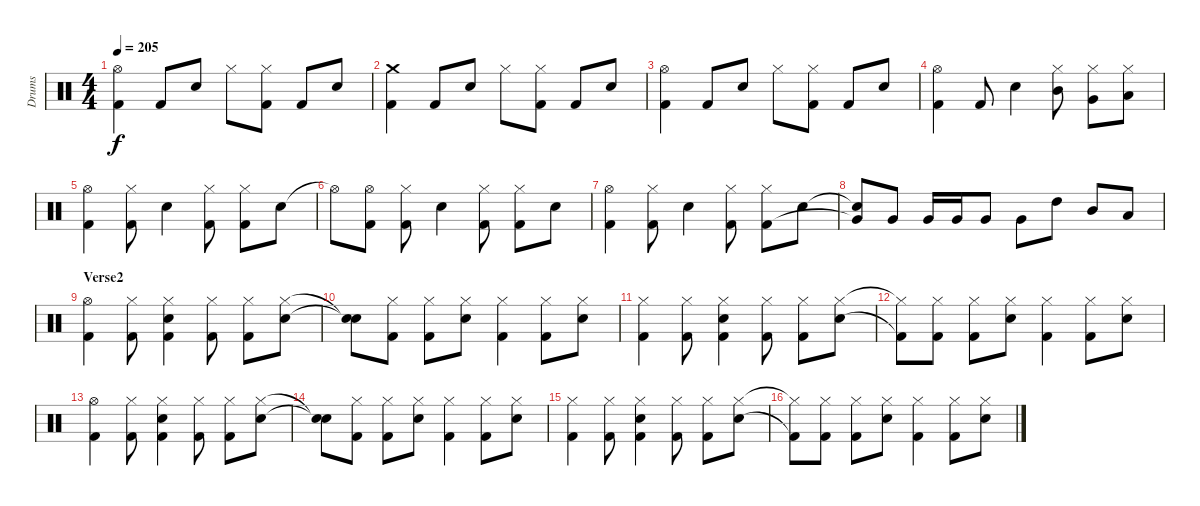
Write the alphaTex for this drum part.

\track ("Drums" "Drums") {instrument percussion}
\staff {score}
\articulation defaults
\ts (4 4)
\tempo 205
\clef neutral
\ks c
("Hi-Hat (open)" "Kick (hit) 2").4{dy f} "Kick (hit) 2".8 "Electric Snare (hit)".8 "Hi-Hat (closed)".8 ("Hi-Hat (closed)" "Kick (hit) 2").8 "Kick (hit) 2".8 "Electric Snare (hit)".8 |
("Crash medium (hit)" "Kick (hit) 2").4 "Kick (hit) 2".8 "Electric Snare (hit)".8 "Hi-Hat (closed)".8 ("Hi-Hat (closed)" "Kick (hit) 2").8 "Kick (hit) 2".8 "Electric Snare (hit)".8 |
("Hi-Hat (open)" "Kick (hit) 2").4 "Kick (hit) 2".8 "Electric Snare (hit)".8 "Hi-Hat (closed)".8 ("Hi-Hat (closed)" "Kick (hit) 2").8 "Kick (hit) 2".8 "Electric Snare (hit)".8 |
("Hi-Hat (open)" "Kick (hit) 2").4 "Kick (hit) 2".8 "Electric Snare (hit)".4 ("Hi-Hat (closed)" "Mid Tom (hit)").8 ("Hi-Hat (closed)" "Very Low Tom (hit)").8 ("Hi-Hat (closed)" "Low Tom (hit)").8 |
("Hi-Hat (open)" "Kick (hit) 2").4 ("Hi-Hat (closed)" "Kick (hit) 2").8 "Electric Snare (hit)".4 ("Hi-Hat (closed)" "Kick (hit) 2").8 ("Hi-Hat (closed)" "Kick (hit) 2").8 "Electric Snare (hit)".8 |
"Hi-Hat (open)"{t}.8 ("Hi-Hat (open)" "Kick (hit) 2").8 ("Hi-Hat (closed)" "Kick (hit) 2").8 "Electric Snare (hit)".4 ("Hi-Hat (closed)" "Kick (hit) 2").8 ("Hi-Hat (closed)" "Kick (hit) 2").8 "Electric Snare (hit)".8 |
("Hi-Hat (open)" "Kick (hit) 2").4 ("Hi-Hat (closed)" "Kick (hit) 2").8 "Electric Snare (hit)".4 ("Hi-Hat (closed)" "Kick (hit) 2").8 ("Hi-Hat (closed)" "Kick (hit) 2").8 "Electric Snare (hit)".8 |
("Snare (hit)"{t} "Very Low Tom (hit)"{t}).8 "Very Low Tom (hit)".8 "Very Low Tom (hit)".16 "Very Low Tom (hit)".16 "Very Low Tom (hit)".8 "Very Low Tom (hit)".8 "High Tom (hit)".8 "Mid Tom (hit)".8 "Low Tom (hit)".8 |
\section ("" "Verse2")
("Hi-Hat (open)" "Kick (hit) 2").4 ("Hi-Hat (closed)" "Kick (hit) 2").8 ("Electric Snare (hit)" "Hi-Hat (closed)" "Kick (hit) 2").4 ("Hi-Hat (closed)" "Kick (hit) 2").8 ("Hi-Hat (closed)" "Kick (hit) 2").8 ("Hi-Hat (closed)" "Electric Snare (hit)").8 |
("Snare (hit)"{t} "Snare (hit)"{t}).8 ("Hi-Hat (closed)" "Kick (hit) 2").8 ("Hi-Hat (closed)" "Kick (hit) 2").8 ("Hi-Hat (closed)" "Electric Snare (hit)").8 ("Hi-Hat (closed)" "Kick (hit) 2").4 ("Hi-Hat (closed)" "Kick (hit) 2").8 ("Electric Snare (hit)" "Hi-Hat (closed)").8 |
("Hi-Hat (closed)" "Kick (hit) 2").4 ("Hi-Hat (closed)" "Kick (hit) 2").8 ("Hi-Hat (closed)" "Electric Snare (hit)" "Kick (hit) 2").4 ("Hi-Hat (closed)" "Kick (hit) 2").8 ("Hi-Hat (closed)" "Kick (hit) 2").8 ("Hi-Hat (closed)" "Electric Snare (hit)").8 |
("Hi-Hat (closed)"{t} "Kick (hit) 2"{t}).8 ("Hi-Hat (closed)" "Kick (hit) 2").8 ("Hi-Hat (closed)" "Kick (hit) 2").8 ("Electric Snare (hit)" "Hi-Hat (closed)").8 ("Hi-Hat (closed)" "Kick (hit) 2").4 ("Hi-Hat (closed)" "Kick (hit) 2").8 ("Hi-Hat (closed)" "Electric Snare (hit)").8 |
("Hi-Hat (open)" "Kick (hit) 2").4 ("Hi-Hat (closed)" "Kick (hit) 2").8 ("Electric Snare (hit)" "Hi-Hat (closed)" "Kick (hit) 2").4 ("Hi-Hat (closed)" "Kick (hit) 2").8 ("Hi-Hat (closed)" "Kick (hit) 2").8 ("Hi-Hat (closed)" "Electric Snare (hit)").8 |
("Snare (hit)"{t} "Snare (hit)"{t}).8 ("Hi-Hat (closed)" "Kick (hit) 2").8 ("Hi-Hat (closed)" "Kick (hit) 2").8 ("Hi-Hat (closed)" "Electric Snare (hit)").8 ("Hi-Hat (closed)" "Kick (hit) 2").4 ("Hi-Hat (closed)" "Kick (hit) 2").8 ("Electric Snare (hit)" "Hi-Hat (closed)").8 |
("Hi-Hat (closed)" "Kick (hit) 2").4 ("Hi-Hat (closed)" "Kick (hit) 2").8 ("Hi-Hat (closed)" "Electric Snare (hit)" "Kick (hit) 2").4 ("Hi-Hat (closed)" "Kick (hit) 2").8 ("Hi-Hat (closed)" "Kick (hit) 2").8 ("Hi-Hat (closed)" "Electric Snare (hit)").8 |
("Hi-Hat (closed)"{t} "Kick (hit) 2"{t}).8 ("Hi-Hat (closed)" "Kick (hit) 2").8 ("Hi-Hat (closed)" "Kick (hit) 2").8 ("Electric Snare (hit)" "Hi-Hat (closed)").8 ("Hi-Hat (closed)" "Kick (hit) 2").4 ("Hi-Hat (closed)" "Kick (hit) 2").8 ("Hi-Hat (closed)" "Electric Snare (hit)").8
